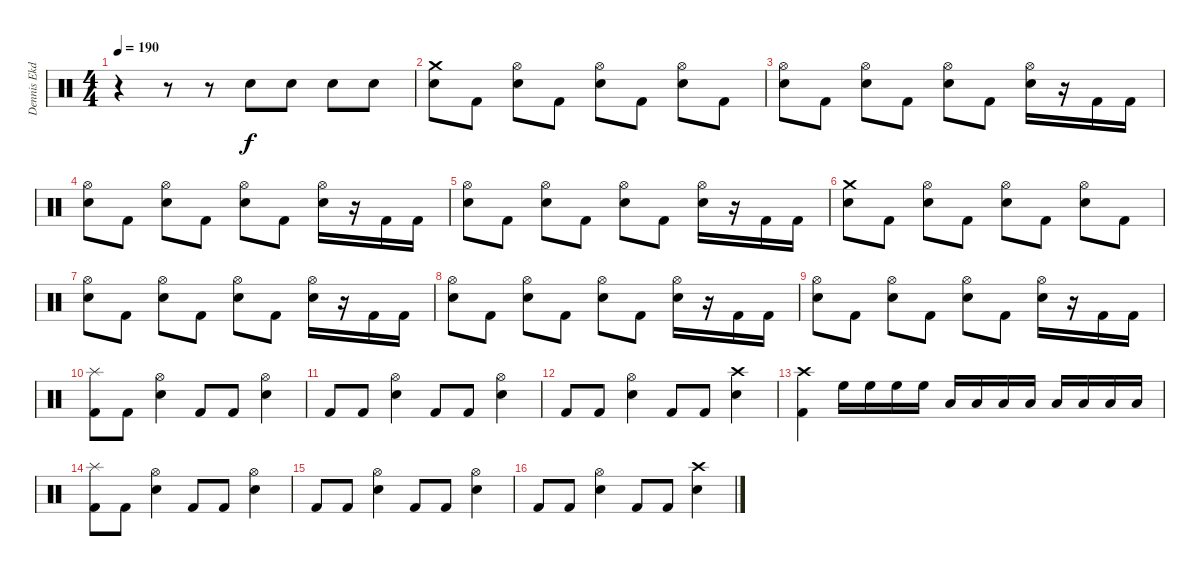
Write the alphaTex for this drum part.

\track ("Dennis Ekdahl" "Dennis Ekd") {instrument percussion}
\staff {score}
\articulation defaults
\ts (4 4)
\tempo 190
\clef neutral
\ks c
r.4{dy f} r.8 r.8 "Electric Snare (hit)".8 "Electric Snare (hit)".8 "Electric Snare (hit)".8 "Electric Snare (hit)".8 |
("Crash medium (hit)" "Snare (hit) 2").8 "Kick (hit) 2".8 ("Hi-Hat (open)" "Snare (hit) 2").8 "Kick (hit) 2".8 ("Hi-Hat (open)" "Snare (hit) 2").8 "Kick (hit) 2".8 ("Hi-Hat (open)" "Snare (hit) 2").8 "Kick (hit) 2".8 |
("Hi-Hat (open)" "Snare (hit) 2").8 "Kick (hit) 2".8 ("Hi-Hat (open)" "Snare (hit) 2").8 "Kick (hit) 2".8 ("Hi-Hat (open)" "Snare (hit) 2").8 "Kick (hit) 2".8 ("Hi-Hat (open)" "Snare (hit) 2").16 r.16 "Kick (hit) 2".16 "Kick (hit) 2".16 |
("Hi-Hat (open)" "Snare (hit) 2").8 "Kick (hit) 2".8 ("Hi-Hat (open)" "Snare (hit) 2").8 "Kick (hit) 2".8 ("Hi-Hat (open)" "Snare (hit) 2").8 "Kick (hit) 2".8 ("Hi-Hat (open)" "Snare (hit) 2").16 r.16 "Kick (hit) 2".16 "Kick (hit) 2".16 |
("Hi-Hat (open)" "Snare (hit) 2").8 "Kick (hit) 2".8 ("Hi-Hat (open)" "Snare (hit) 2").8 "Kick (hit) 2".8 ("Hi-Hat (open)" "Snare (hit) 2").8 "Kick (hit) 2".8 ("Hi-Hat (open)" "Snare (hit) 2").16 r.16 "Kick (hit) 2".16 "Kick (hit) 2".16 |
("Crash medium (hit)" "Snare (hit) 2").8 "Kick (hit) 2".8 ("Hi-Hat (open)" "Snare (hit) 2").8 "Kick (hit) 2".8 ("Hi-Hat (open)" "Snare (hit) 2").8 "Kick (hit) 2".8 ("Hi-Hat (open)" "Snare (hit) 2").8 "Kick (hit) 2".8 |
("Hi-Hat (open)" "Snare (hit) 2").8 "Kick (hit) 2".8 ("Hi-Hat (open)" "Snare (hit) 2").8 "Kick (hit) 2".8 ("Hi-Hat (open)" "Snare (hit) 2").8 "Kick (hit) 2".8 ("Hi-Hat (open)" "Snare (hit) 2").16 r.16 "Kick (hit) 2".16 "Kick (hit) 2".16 |
("Hi-Hat (open)" "Snare (hit) 2").8 "Kick (hit) 2".8 ("Hi-Hat (open)" "Snare (hit) 2").8 "Kick (hit) 2".8 ("Hi-Hat (open)" "Snare (hit) 2").8 "Kick (hit) 2".8 ("Hi-Hat (open)" "Snare (hit) 2").16 r.16 "Kick (hit) 2".16 "Kick (hit) 2".16 |
("Hi-Hat (open)" "Snare (hit) 2").8 "Kick (hit) 2".8 ("Hi-Hat (open)" "Snare (hit) 2").8 "Kick (hit) 2".8 ("Hi-Hat (open)" "Snare (hit) 2").8 "Kick (hit) 2".8 ("Hi-Hat (open)" "Snare (hit) 2").16 r.16 "Kick (hit) 2".16 "Kick (hit) 2".16 |
("Splash (hit)" "Kick (hit) 2").8 "Kick (hit) 2".8 ("Hi-Hat (open)" "Snare (hit) 2").4 "Kick (hit) 2".8 "Kick (hit) 2".8 ("Hi-Hat (open)" "Snare (hit) 2").4 |
"Kick (hit) 2".8 "Kick (hit) 2".8 ("Hi-Hat (open)" "Snare (hit) 2").4 "Kick (hit) 2".8 "Kick (hit) 2".8 ("Hi-Hat (open)" "Snare (hit) 2").4 |
"Kick (hit) 2".8 "Kick (hit) 2".8 ("Hi-Hat (open)" "Snare (hit) 2").4 "Kick (hit) 2".8 "Kick (hit) 2".8 ("Crash high (hit)" "Snare (hit) 2").4 |
("Crash high (hit)" "Kick (hit) 2").4 "High Floor Tom (hit)".16 "High Floor Tom (hit)".16 "High Floor Tom (hit)".16 "High Floor Tom (hit)".16 "Low Tom (hit)".16 "Low Tom (hit)".16 "Low Tom (hit)".16 "Low Tom (hit)".16 "Low Floor Tom (hit)".16 "Low Floor Tom (hit)".16 "Low Floor Tom (hit)".16 "Low Floor Tom (hit)".16 |
("Splash (hit)" "Kick (hit) 2").8 "Kick (hit) 2".8 ("Hi-Hat (open)" "Snare (hit) 2").4 "Kick (hit) 2".8 "Kick (hit) 2".8 ("Hi-Hat (open)" "Snare (hit) 2").4 |
"Kick (hit) 2".8 "Kick (hit) 2".8 ("Hi-Hat (open)" "Snare (hit) 2").4 "Kick (hit) 2".8 "Kick (hit) 2".8 ("Hi-Hat (open)" "Snare (hit) 2").4 |
"Kick (hit) 2".8 "Kick (hit) 2".8 ("Hi-Hat (open)" "Snare (hit) 2").4 "Kick (hit) 2".8 "Kick (hit) 2".8 ("Crash high (hit)" "Snare (hit) 2").4
